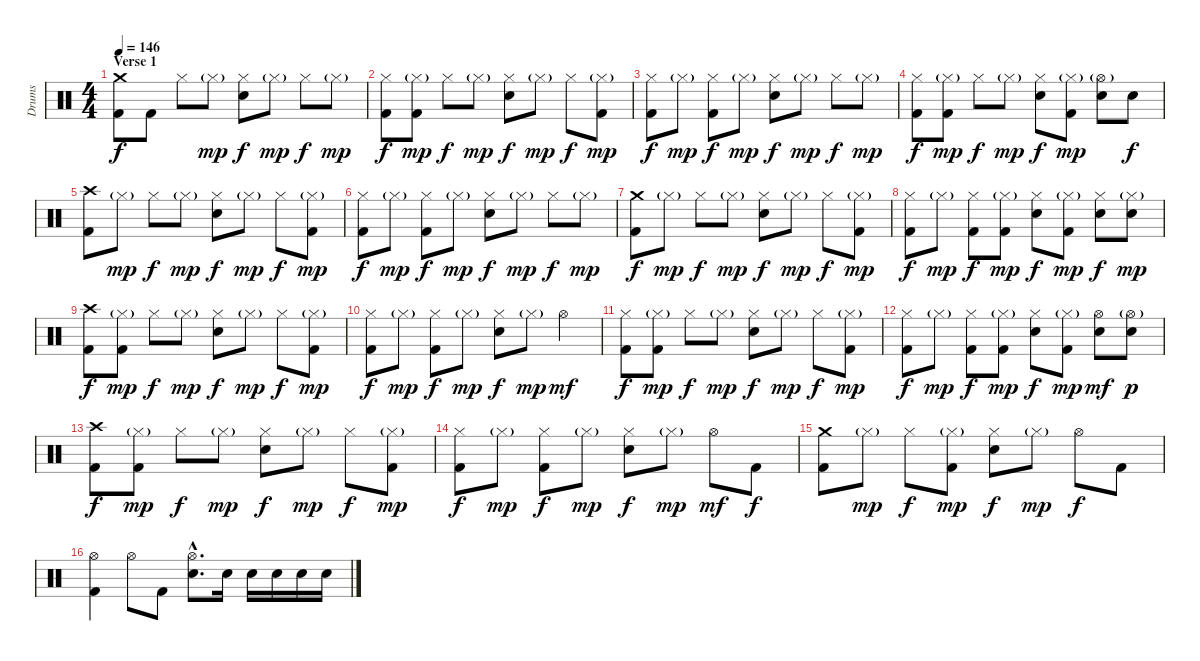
\track ("Drums" "Drums") {instrument percussion}
\staff {score}
\articulation defaults
\ts (4 4)
\section ("" "Verse 1")
\tempo 146
\clef neutral
\ks c
("Crash medium (hit)" "Kick (hit) 2").8{dy f} "Kick (hit) 2".8 "Hi-Hat (closed)".8 "Hi-Hat (closed)"{g}.8{dy mp} ("Hi-Hat (closed)" "Snare (hit) 2").8{dy f} "Hi-Hat (closed)"{g}.8{dy mp} "Hi-Hat (closed)".8{dy f} "Hi-Hat (closed)"{g}.8{dy mp} |
("Hi-Hat (closed)" "Kick (hit) 2").8{dy f} ("Hi-Hat (closed)"{g} "Kick (hit) 2").8{dy mp} "Hi-Hat (closed)".8{dy f} "Hi-Hat (closed)"{g}.8{dy mp} ("Hi-Hat (closed)" "Snare (hit) 2").8{dy f} "Hi-Hat (closed)"{g}.8{dy mp} "Hi-Hat (closed)".8{dy f} ("Hi-Hat (closed)"{g} "Kick (hit) 2").8{dy mp} |
("Hi-Hat (closed)" "Kick (hit) 2").8{dy f} "Hi-Hat (closed)"{g}.8{dy mp} ("Hi-Hat (closed)" "Kick (hit) 2").8{dy f} "Hi-Hat (closed)"{g}.8{dy mp} ("Hi-Hat (closed)" "Snare (hit) 2").8{dy f} "Hi-Hat (closed)"{g}.8{dy mp} "Hi-Hat (closed)".8{dy f} "Hi-Hat (closed)"{g}.8{dy mp} |
("Hi-Hat (closed)" "Kick (hit) 2").8{dy f} ("Hi-Hat (closed)"{g} "Kick (hit) 2").8{dy mp} "Hi-Hat (closed)".8{dy f} "Hi-Hat (closed)"{g}.8{dy mp} ("Hi-Hat (closed)" "Snare (hit) 2").8{dy f} ("Hi-Hat (closed)"{g} "Kick (hit) 2").8{dy mp} ("Hi-Hat (open)"{g} "Snare (hit) 2").8 "Snare (hit) 2".8{dy f} |
("Crash high (hit)" "Kick (hit) 2").8 "Hi-Hat (closed)"{g}.8{dy mp} "Hi-Hat (closed)".8{dy f} "Hi-Hat (closed)"{g}.8{dy mp} ("Hi-Hat (closed)" "Snare (hit) 2").8{dy f} "Hi-Hat (closed)"{g}.8{dy mp} "Hi-Hat (closed)".8{dy f} ("Hi-Hat (closed)"{g} "Kick (hit) 2").8{dy mp} |
("Hi-Hat (closed)" "Kick (hit) 2").8{dy f} "Hi-Hat (closed)"{g}.8{dy mp} ("Hi-Hat (closed)" "Kick (hit) 2").8{dy f} "Hi-Hat (closed)"{g}.8{dy mp} ("Hi-Hat (closed)" "Snare (hit) 2").8{dy f} "Hi-Hat (closed)"{g}.8{dy mp} "Hi-Hat (closed)".8{dy f} "Hi-Hat (closed)"{g}.8{dy mp} |
("Crash medium (hit)" "Kick (hit) 2").8{dy f} "Hi-Hat (closed)"{g}.8{dy mp} "Hi-Hat (closed)".8{dy f} "Hi-Hat (closed)"{g}.8{dy mp} ("Hi-Hat (closed)" "Snare (hit) 2").8{dy f} "Hi-Hat (closed)"{g}.8{dy mp} "Hi-Hat (closed)".8{dy f} ("Hi-Hat (closed)"{g} "Kick (hit) 2").8{dy mp} |
("Hi-Hat (closed)" "Kick (hit) 2").8{dy f} "Hi-Hat (closed)"{g}.8{dy mp} ("Hi-Hat (closed)" "Kick (hit) 2").8{dy f} ("Hi-Hat (closed)"{g} "Kick (hit) 2").8{dy mp} ("Hi-Hat (closed)" "Snare (hit) 2").8{dy f} ("Hi-Hat (closed)"{g} "Kick (hit) 2").8{dy mp} ("Hi-Hat (closed)" "Snare (hit) 2").8{dy f} ("Hi-Hat (closed)"{g} "Snare (hit) 2").8{dy mp} |
("Crash high (hit)" "Kick (hit) 2").8{dy f} ("Hi-Hat (closed)"{g} "Kick (hit) 2").8{dy mp} "Hi-Hat (closed)".8{dy f} "Hi-Hat (closed)"{g}.8{dy mp} ("Hi-Hat (closed)" "Snare (hit) 2").8{dy f} "Hi-Hat (closed)"{g}.8{dy mp} "Hi-Hat (closed)".8{dy f} ("Hi-Hat (closed)"{g} "Kick (hit) 2").8{dy mp} |
("Hi-Hat (closed)" "Kick (hit) 2").8{dy f} "Hi-Hat (closed)"{g}.8{dy mp} ("Hi-Hat (closed)" "Kick (hit) 2").8{dy f} "Hi-Hat (closed)"{g}.8{dy mp} ("Hi-Hat (closed)" "Snare (hit) 2").8{dy f} "Hi-Hat (closed)"{g}.8{dy mp} "Hi-Hat (open)".4{dy mf} |
("Hi-Hat (closed)" "Kick (hit) 2").8{dy f} ("Hi-Hat (closed)"{g} "Kick (hit) 2").8{dy mp} "Hi-Hat (closed)".8{dy f} "Hi-Hat (closed)"{g}.8{dy mp} ("Hi-Hat (closed)" "Snare (hit) 2").8{dy f} "Hi-Hat (closed)"{g}.8{dy mp} "Hi-Hat (closed)".8{dy f} ("Hi-Hat (closed)"{g} "Kick (hit) 2").8{dy mp} |
("Hi-Hat (closed)" "Kick (hit) 2").8{dy f} "Hi-Hat (closed)"{g}.8{dy mp} ("Hi-Hat (closed)" "Kick (hit) 2").8{dy f} ("Hi-Hat (closed)"{g} "Kick (hit) 2").8{dy mp} ("Hi-Hat (closed)" "Snare (hit) 2").8{dy f} ("Hi-Hat (closed)"{g} "Kick (hit) 2").8{dy mp} ("Hi-Hat (open)" "Snare (hit) 2").8{dy mf} ("Hi-Hat (open)"{g} "Snare (hit) 2").8{dy p} |
("Crash high (hit)" "Kick (hit) 2").8{dy f} ("Hi-Hat (closed)"{g} "Kick (hit) 2").8{dy mp} "Hi-Hat (closed)".8{dy f} "Hi-Hat (closed)"{g}.8{dy mp} ("Hi-Hat (closed)" "Snare (hit) 2").8{dy f} "Hi-Hat (closed)"{g}.8{dy mp} "Hi-Hat (closed)".8{dy f} ("Hi-Hat (closed)"{g} "Kick (hit) 2").8{dy mp} |
("Hi-Hat (closed)" "Kick (hit) 2").8{dy f} "Hi-Hat (closed)"{g}.8{dy mp} ("Hi-Hat (closed)" "Kick (hit) 2").8{dy f} "Hi-Hat (closed)"{g}.8{dy mp} ("Hi-Hat (closed)" "Snare (hit) 2").8{dy f} "Hi-Hat (closed)"{g}.8{dy mp} "Hi-Hat (open)".8{dy mf} "Kick (hit) 2".8{dy f} |
("Crash medium (hit)" "Kick (hit) 2").8 "Hi-Hat (closed)"{g}.8{dy mp} "Hi-Hat (closed)".8{dy f} ("Hi-Hat (closed)"{g} "Kick (hit) 2").8{dy mp} ("Hi-Hat (closed)" "Snare (hit) 2").8{dy f} "Hi-Hat (closed)"{g}.8{dy mp} "Hi-Hat (open)".8{dy f} "Kick (hit) 2".8 |
("Hi-Hat (open)" "Kick (hit) 2").4 "Hi-Hat (open)".8 "Kick (hit) 2".8 ("Hi-Hat (open)"{hac} "Snare (hit) 2"{hac}).8{d} "Snare (hit) 2".16 "Snare (hit) 2".16 "Snare (hit) 2".16 "Snare (hit) 2".16 "Snare (hit) 2".16
